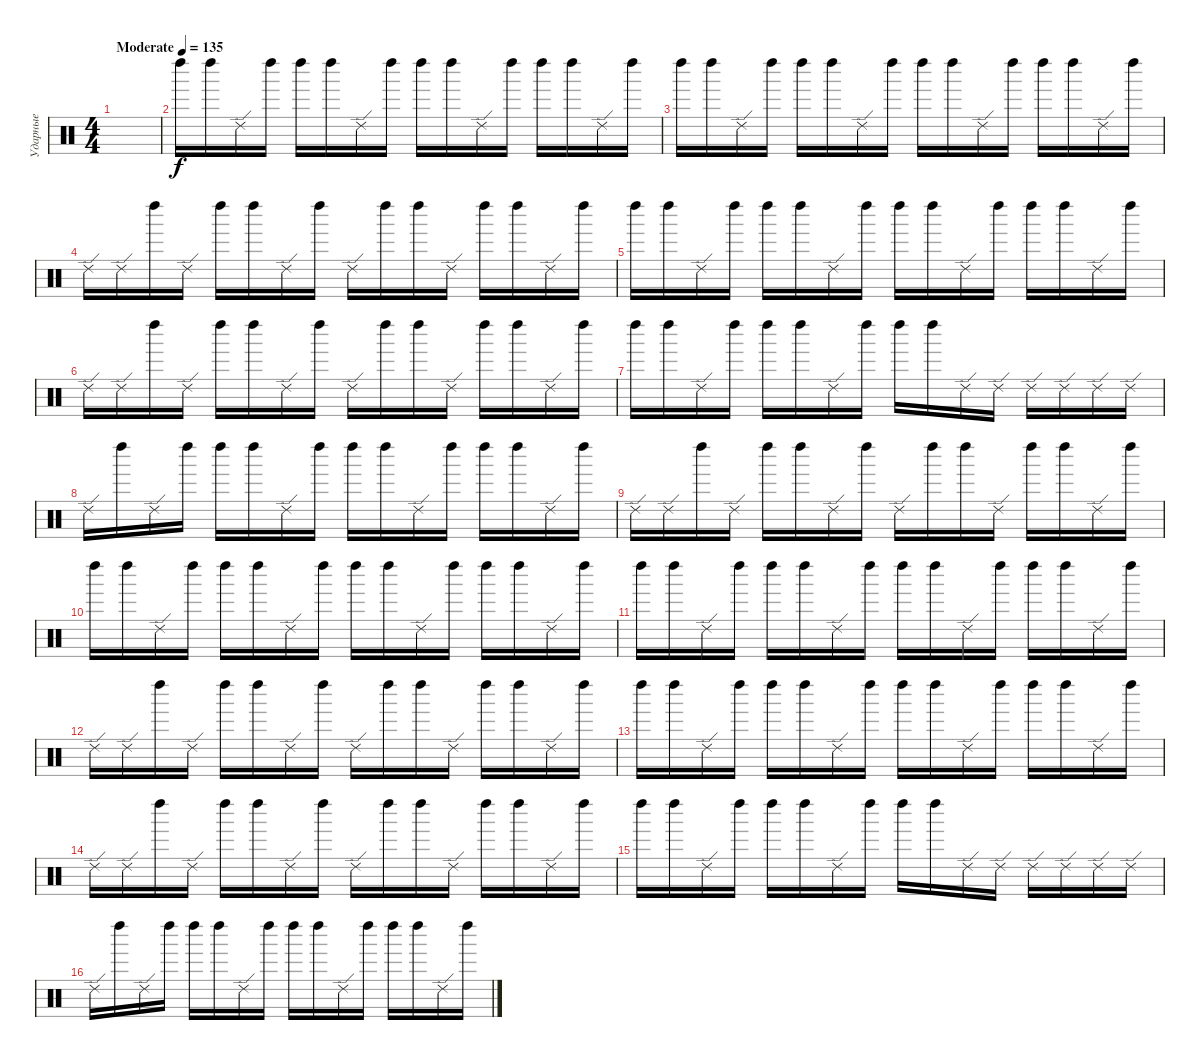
\track ("Ударные" "Ударные") {instrument percussion}
\staff {score}
\articulation defaults
\ts (4 4)
\tempo (135 "Moderate")
\clef neutral
\ks c
|
"Left Maraca (hit)".16 "Left Maraca (hit)".16 "Ride (edge) 2".16 "Left Maraca (hit)".16 "Left Maraca (hit)".16 "Left Maraca (hit)".16 "Ride (edge) 2".16 "Left Maraca (hit)".16 "Left Maraca (hit)".16 "Left Maraca (hit)".16 "Ride (edge) 2".16 "Left Maraca (hit)".16 "Left Maraca (hit)".16 "Left Maraca (hit)".16 "Ride (edge) 2".16 "Left Maraca (hit)".16 |
"Left Maraca (hit)".16 "Left Maraca (hit)".16 "Ride (edge) 2".16 "Left Maraca (hit)".16 "Left Maraca (hit)".16 "Left Maraca (hit)".16 "Ride (edge) 2".16 "Left Maraca (hit)".16 "Left Maraca (hit)".16 "Left Maraca (hit)".16 "Ride (edge) 2".16 "Left Maraca (hit)".16 "Left Maraca (hit)".16 "Left Maraca (hit)".16 "Ride (edge) 2".16 "Left Maraca (hit)".16 |
"Ride (edge) 2".16 "Ride (edge) 2".16 "Left Maraca (hit)".16 "Ride (edge) 2".16 "Left Maraca (hit)".16 "Left Maraca (hit)".16 "Ride (edge) 2".16 "Left Maraca (hit)".16 "Ride (edge) 2".16 "Left Maraca (hit)".16 "Left Maraca (hit)".16 "Ride (edge) 2".16 "Left Maraca (hit)".16 "Left Maraca (hit)".16 "Ride (edge) 2".16 "Left Maraca (hit)".16 |
"Left Maraca (hit)".16 "Left Maraca (hit)".16 "Ride (edge) 2".16 "Left Maraca (hit)".16 "Left Maraca (hit)".16 "Left Maraca (hit)".16 "Ride (edge) 2".16 "Left Maraca (hit)".16 "Left Maraca (hit)".16 "Left Maraca (hit)".16 "Ride (edge) 2".16 "Left Maraca (hit)".16 "Left Maraca (hit)".16 "Left Maraca (hit)".16 "Ride (edge) 2".16 "Left Maraca (hit)".16 |
"Ride (edge) 2".16 "Ride (edge) 2".16 "Left Maraca (hit)".16 "Ride (edge) 2".16 "Left Maraca (hit)".16 "Left Maraca (hit)".16 "Ride (edge) 2".16 "Left Maraca (hit)".16 "Ride (edge) 2".16 "Left Maraca (hit)".16 "Left Maraca (hit)".16 "Ride (edge) 2".16 "Left Maraca (hit)".16 "Left Maraca (hit)".16 "Ride (edge) 2".16 "Left Maraca (hit)".16 |
"Left Maraca (hit)".16 "Left Maraca (hit)".16 "Ride (edge) 2".16 "Left Maraca (hit)".16 "Left Maraca (hit)".16 "Left Maraca (hit)".16 "Ride (edge) 2".16 "Left Maraca (hit)".16 "Left Maraca (hit)".16 "Left Maraca (hit)".16 "Ride (edge) 2".16 "Ride (edge) 2".16 "Ride (edge) 2".16 "Ride (edge) 2".16 "Ride (edge) 2".16 "Ride (edge) 2".16 |
"Ride (edge) 2".16 "Left Maraca (hit)".16 "Ride (edge) 2".16 "Left Maraca (hit)".16 "Left Maraca (hit)".16 "Left Maraca (hit)".16 "Ride (edge) 2".16 "Left Maraca (hit)".16 "Left Maraca (hit)".16 "Left Maraca (hit)".16 "Ride (edge) 2".16 "Left Maraca (hit)".16 "Left Maraca (hit)".16 "Left Maraca (hit)".16 "Ride (edge) 2".16 "Left Maraca (hit)".16 |
"Ride (edge) 2".16 "Ride (edge) 2".16 "Left Maraca (hit)".16 "Ride (edge) 2".16 "Left Maraca (hit)".16 "Left Maraca (hit)".16 "Ride (edge) 2".16 "Left Maraca (hit)".16 "Ride (edge) 2".16 "Left Maraca (hit)".16 "Left Maraca (hit)".16 "Ride (edge) 2".16 "Left Maraca (hit)".16 "Left Maraca (hit)".16 "Ride (edge) 2".16 "Left Maraca (hit)".16 |
"Left Maraca (hit)".16 "Left Maraca (hit)".16 "Ride (edge) 2".16 "Left Maraca (hit)".16 "Left Maraca (hit)".16 "Left Maraca (hit)".16 "Ride (edge) 2".16 "Left Maraca (hit)".16 "Left Maraca (hit)".16 "Left Maraca (hit)".16 "Ride (edge) 2".16 "Left Maraca (hit)".16 "Left Maraca (hit)".16 "Left Maraca (hit)".16 "Ride (edge) 2".16 "Left Maraca (hit)".16 |
"Left Maraca (hit)".16 "Left Maraca (hit)".16 "Ride (edge) 2".16 "Left Maraca (hit)".16 "Left Maraca (hit)".16 "Left Maraca (hit)".16 "Ride (edge) 2".16 "Left Maraca (hit)".16 "Left Maraca (hit)".16 "Left Maraca (hit)".16 "Ride (edge) 2".16 "Left Maraca (hit)".16 "Left Maraca (hit)".16 "Left Maraca (hit)".16 "Ride (edge) 2".16 "Left Maraca (hit)".16 |
"Ride (edge) 2".16 "Ride (edge) 2".16 "Left Maraca (hit)".16 "Ride (edge) 2".16 "Left Maraca (hit)".16 "Left Maraca (hit)".16 "Ride (edge) 2".16 "Left Maraca (hit)".16 "Ride (edge) 2".16 "Left Maraca (hit)".16 "Left Maraca (hit)".16 "Ride (edge) 2".16 "Left Maraca (hit)".16 "Left Maraca (hit)".16 "Ride (edge) 2".16 "Left Maraca (hit)".16 |
"Left Maraca (hit)".16 "Left Maraca (hit)".16 "Ride (edge) 2".16 "Left Maraca (hit)".16 "Left Maraca (hit)".16 "Left Maraca (hit)".16 "Ride (edge) 2".16 "Left Maraca (hit)".16 "Left Maraca (hit)".16 "Left Maraca (hit)".16 "Ride (edge) 2".16 "Left Maraca (hit)".16 "Left Maraca (hit)".16 "Left Maraca (hit)".16 "Ride (edge) 2".16 "Left Maraca (hit)".16 |
"Ride (edge) 2".16 "Ride (edge) 2".16 "Left Maraca (hit)".16 "Ride (edge) 2".16 "Left Maraca (hit)".16 "Left Maraca (hit)".16 "Ride (edge) 2".16 "Left Maraca (hit)".16 "Ride (edge) 2".16 "Left Maraca (hit)".16 "Left Maraca (hit)".16 "Ride (edge) 2".16 "Left Maraca (hit)".16 "Left Maraca (hit)".16 "Ride (edge) 2".16 "Left Maraca (hit)".16 |
"Left Maraca (hit)".16 "Left Maraca (hit)".16 "Ride (edge) 2".16 "Left Maraca (hit)".16 "Left Maraca (hit)".16 "Left Maraca (hit)".16 "Ride (edge) 2".16 "Left Maraca (hit)".16 "Left Maraca (hit)".16 "Left Maraca (hit)".16 "Ride (edge) 2".16 "Ride (edge) 2".16 "Ride (edge) 2".16 "Ride (edge) 2".16 "Ride (edge) 2".16 "Ride (edge) 2".16 |
"Ride (edge) 2".16 "Left Maraca (hit)".16 "Ride (edge) 2".16 "Left Maraca (hit)".16 "Left Maraca (hit)".16 "Left Maraca (hit)".16 "Ride (edge) 2".16 "Left Maraca (hit)".16 "Left Maraca (hit)".16 "Left Maraca (hit)".16 "Ride (edge) 2".16 "Left Maraca (hit)".16 "Left Maraca (hit)".16 "Left Maraca (hit)".16 "Ride (edge) 2".16 "Left Maraca (hit)".16
